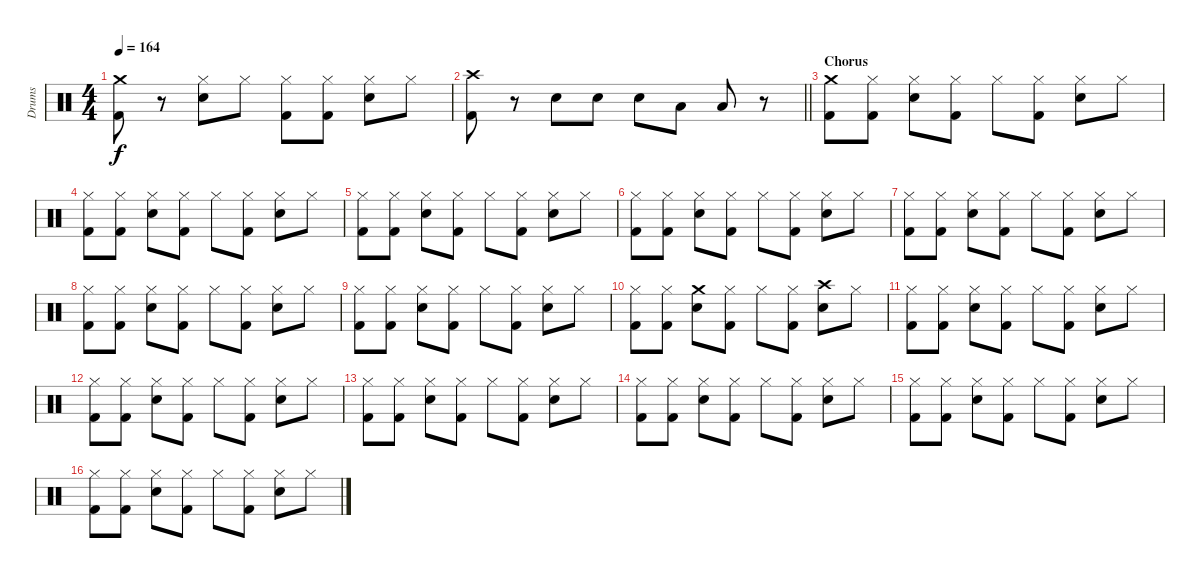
\track ("Drums" "Drums") {instrument percussion}
\staff {score}
\articulation defaults
\ts (4 4)
\tempo 164
\clef neutral
\ks c
("Crash medium (hit)" "Kick (hit) 2").8{dy f} r.8 ("Hi-Hat (closed)" "Snare (hit) 2").8 "Hi-Hat (closed)".8 ("Hi-Hat (closed)" "Kick (hit) 2").8 ("Hi-Hat (closed)" "Kick (hit) 2").8 ("Hi-Hat (closed)" "Snare (hit) 2").8 "Hi-Hat (closed)".8 |
\barLineRight lightlight
("Crash high (hit)" "Kick (hit) 2").8 r.8 "Snare (hit) 2".8 "Snare (hit) 2".8 "Snare (hit) 2".8 "Low Tom (hit)".8 "Low Tom (hit)".8 r.8 |
\section ("" "Chorus")
("Crash medium (hit)" "Kick (hit) 2").8 ("Hi-Hat (closed)" "Kick (hit) 2").8 ("Hi-Hat (closed)" "Snare (hit) 2").8 ("Hi-Hat (closed)" "Kick (hit) 2").8 "Hi-Hat (closed)".8 ("Hi-Hat (closed)" "Kick (hit) 2").8 ("Hi-Hat (closed)" "Snare (hit) 2").8 "Hi-Hat (closed)".8 |
("Hi-Hat (closed)" "Kick (hit) 2").8 ("Hi-Hat (closed)" "Kick (hit) 2").8 ("Hi-Hat (closed)" "Snare (hit) 2").8 ("Hi-Hat (closed)" "Kick (hit) 2").8 "Hi-Hat (closed)".8 ("Hi-Hat (closed)" "Kick (hit) 2").8 ("Hi-Hat (closed)" "Snare (hit) 2").8 "Hi-Hat (closed)".8 |
("Hi-Hat (closed)" "Kick (hit) 2").8 ("Hi-Hat (closed)" "Kick (hit) 2").8 ("Hi-Hat (closed)" "Snare (hit) 2").8 ("Hi-Hat (closed)" "Kick (hit) 2").8 "Hi-Hat (closed)".8 ("Hi-Hat (closed)" "Kick (hit) 2").8 ("Hi-Hat (closed)" "Snare (hit) 2").8 "Hi-Hat (closed)".8 |
("Hi-Hat (closed)" "Kick (hit) 2").8 ("Hi-Hat (closed)" "Kick (hit) 2").8 ("Hi-Hat (closed)" "Snare (hit) 2").8 ("Hi-Hat (closed)" "Kick (hit) 2").8 "Hi-Hat (closed)".8 ("Hi-Hat (closed)" "Kick (hit) 2").8 ("Hi-Hat (closed)" "Snare (hit) 2").8 "Hi-Hat (closed)".8 |
("Hi-Hat (closed)" "Kick (hit) 2").8 ("Hi-Hat (closed)" "Kick (hit) 2").8 ("Hi-Hat (closed)" "Snare (hit) 2").8 ("Hi-Hat (closed)" "Kick (hit) 2").8 "Hi-Hat (closed)".8 ("Hi-Hat (closed)" "Kick (hit) 2").8 ("Hi-Hat (closed)" "Snare (hit) 2").8 "Hi-Hat (closed)".8 |
("Hi-Hat (closed)" "Kick (hit) 2").8 ("Hi-Hat (closed)" "Kick (hit) 2").8 ("Hi-Hat (closed)" "Snare (hit) 2").8 ("Hi-Hat (closed)" "Kick (hit) 2").8 "Hi-Hat (closed)".8 ("Hi-Hat (closed)" "Kick (hit) 2").8 ("Hi-Hat (closed)" "Snare (hit) 2").8 "Hi-Hat (closed)".8 |
("Hi-Hat (closed)" "Kick (hit) 2").8 ("Hi-Hat (closed)" "Kick (hit) 2").8 ("Hi-Hat (closed)" "Snare (hit) 2").8 ("Hi-Hat (closed)" "Kick (hit) 2").8 "Hi-Hat (closed)".8 ("Hi-Hat (closed)" "Kick (hit) 2").8 ("Hi-Hat (closed)" "Snare (hit) 2").8 "Hi-Hat (closed)".8 |
("Hi-Hat (closed)" "Kick (hit) 2").8 ("Hi-Hat (closed)" "Kick (hit) 2").8 ("Crash medium (hit)" "Snare (hit) 2").8 ("Hi-Hat (closed)" "Kick (hit) 2").8 "Hi-Hat (closed)".8 ("Hi-Hat (closed)" "Kick (hit) 2").8 ("Crash high (hit)" "Snare (hit) 2").8 "Hi-Hat (closed)".8 |
("Hi-Hat (closed)" "Kick (hit) 2").8 ("Hi-Hat (closed)" "Kick (hit) 2").8 ("Hi-Hat (closed)" "Snare (hit) 2").8 ("Hi-Hat (closed)" "Kick (hit) 2").8 "Hi-Hat (closed)".8 ("Hi-Hat (closed)" "Kick (hit) 2").8 ("Hi-Hat (closed)" "Snare (hit) 2").8 "Hi-Hat (closed)".8 |
("Hi-Hat (closed)" "Kick (hit) 2").8 ("Hi-Hat (closed)" "Kick (hit) 2").8 ("Hi-Hat (closed)" "Snare (hit) 2").8 ("Hi-Hat (closed)" "Kick (hit) 2").8 "Hi-Hat (closed)".8 ("Hi-Hat (closed)" "Kick (hit) 2").8 ("Hi-Hat (closed)" "Snare (hit) 2").8 "Hi-Hat (closed)".8 |
("Hi-Hat (closed)" "Kick (hit) 2").8 ("Hi-Hat (closed)" "Kick (hit) 2").8 ("Hi-Hat (closed)" "Snare (hit) 2").8 ("Hi-Hat (closed)" "Kick (hit) 2").8 "Hi-Hat (closed)".8 ("Hi-Hat (closed)" "Kick (hit) 2").8 ("Hi-Hat (closed)" "Snare (hit) 2").8 "Hi-Hat (closed)".8 |
("Hi-Hat (closed)" "Kick (hit) 2").8 ("Hi-Hat (closed)" "Kick (hit) 2").8 ("Hi-Hat (closed)" "Snare (hit) 2").8 ("Hi-Hat (closed)" "Kick (hit) 2").8 "Hi-Hat (closed)".8 ("Hi-Hat (closed)" "Kick (hit) 2").8 ("Hi-Hat (closed)" "Snare (hit) 2").8 "Hi-Hat (closed)".8 |
("Hi-Hat (closed)" "Kick (hit) 2").8 ("Hi-Hat (closed)" "Kick (hit) 2").8 ("Hi-Hat (closed)" "Snare (hit) 2").8 ("Hi-Hat (closed)" "Kick (hit) 2").8 "Hi-Hat (closed)".8 ("Hi-Hat (closed)" "Kick (hit) 2").8 ("Hi-Hat (closed)" "Snare (hit) 2").8 "Hi-Hat (closed)".8 |
("Hi-Hat (closed)" "Kick (hit) 2").8 ("Hi-Hat (closed)" "Kick (hit) 2").8 ("Hi-Hat (closed)" "Snare (hit) 2").8 ("Hi-Hat (closed)" "Kick (hit) 2").8 "Hi-Hat (closed)".8 ("Hi-Hat (closed)" "Kick (hit) 2").8 ("Hi-Hat (closed)" "Snare (hit) 2").8 "Hi-Hat (closed)".8
